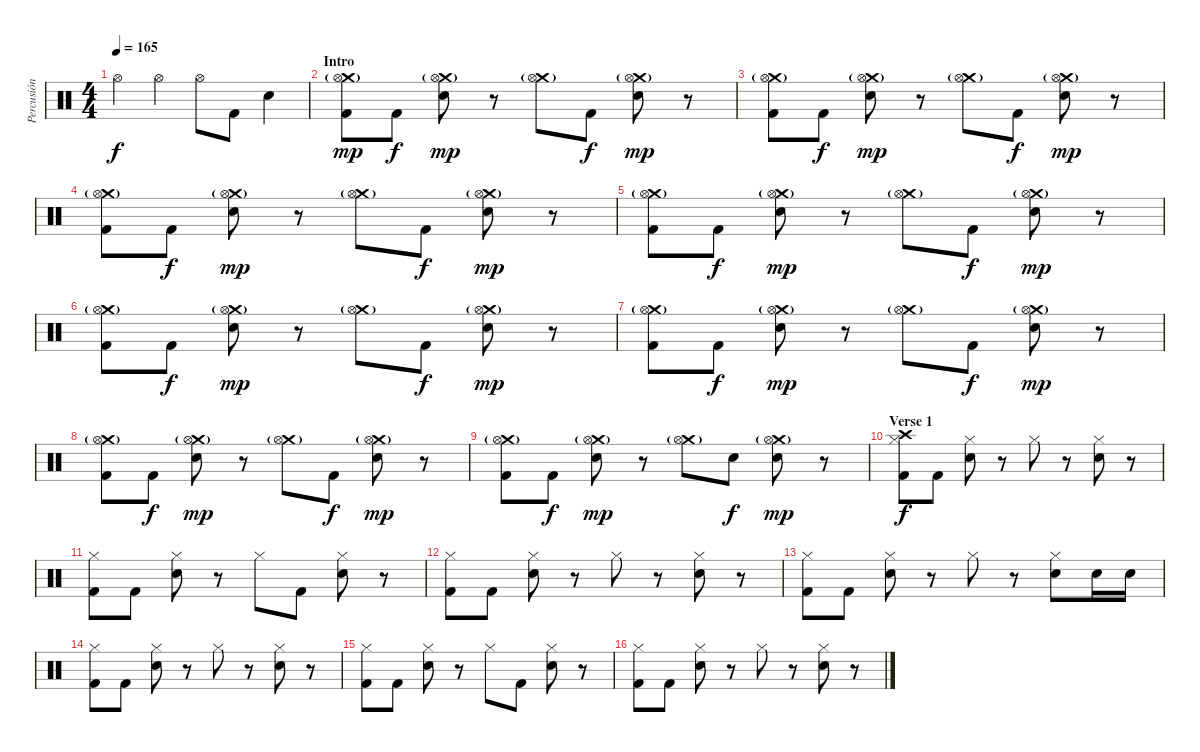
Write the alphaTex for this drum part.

\track ("Percusión" "Percusión") {instrument percussion}
\staff {score}
\articulation defaults
\ts (4 4)
\tempo 165
\clef neutral
\ks c "Hi-Hat (open)".4{dy f} "Hi-Hat (open)".4 "Hi-Hat (open)".8 "Kick (hit) 2".8 "Electric Snare (hit)".4
|
\section ("" "Intro")
("Crash medium (hit)"{g} "Hi-Hat (open)" "Kick (hit) 2").8{dy mp} "Kick (hit) 2".8{dy f} ("Crash medium (hit)"{g} "Hi-Hat (open)" "Electric Snare (hit)").8{dy mp} r.8 ("Crash medium (hit)"{g} "Hi-Hat (open)").8 "Kick (hit) 2".8{dy f} ("Crash medium (hit)"{g} "Hi-Hat (open)" "Electric Snare (hit)").8{dy mp} r.8 |
("Crash medium (hit)"{g} "Hi-Hat (open)" "Kick (hit) 2").8 "Kick (hit) 2".8{dy f} ("Crash medium (hit)"{g} "Hi-Hat (open)" "Electric Snare (hit)").8{dy mp} r.8 ("Crash medium (hit)"{g} "Hi-Hat (open)").8 "Kick (hit) 2".8{dy f} ("Crash medium (hit)"{g} "Hi-Hat (open)" "Electric Snare (hit)").8{dy mp} r.8 |
("Crash medium (hit)"{g} "Hi-Hat (open)" "Kick (hit) 2").8 "Kick (hit) 2".8{dy f} ("Crash medium (hit)"{g} "Hi-Hat (open)" "Electric Snare (hit)").8{dy mp} r.8 ("Crash medium (hit)"{g} "Hi-Hat (open)").8 "Kick (hit) 2".8{dy f} ("Crash medium (hit)"{g} "Hi-Hat (open)" "Electric Snare (hit)").8{dy mp} r.8 |
("Crash medium (hit)"{g} "Hi-Hat (open)" "Kick (hit) 2").8 "Kick (hit) 2".8{dy f} ("Crash medium (hit)"{g} "Hi-Hat (open)" "Electric Snare (hit)").8{dy mp} r.8 ("Crash medium (hit)"{g} "Hi-Hat (open)").8 "Kick (hit) 2".8{dy f} ("Crash medium (hit)"{g} "Hi-Hat (open)" "Electric Snare (hit)").8{dy mp} r.8 |
("Crash medium (hit)"{g} "Hi-Hat (open)" "Kick (hit) 2").8 "Kick (hit) 2".8{dy f} ("Crash medium (hit)"{g} "Hi-Hat (open)" "Electric Snare (hit)").8{dy mp} r.8 ("Crash medium (hit)"{g} "Hi-Hat (open)").8 "Kick (hit) 2".8{dy f} ("Crash medium (hit)"{g} "Hi-Hat (open)" "Electric Snare (hit)").8{dy mp} r.8 |
("Crash medium (hit)"{g} "Hi-Hat (open)" "Kick (hit) 2").8 "Kick (hit) 2".8{dy f} ("Crash medium (hit)"{g} "Hi-Hat (open)" "Electric Snare (hit)").8{dy mp} r.8 ("Crash medium (hit)"{g} "Hi-Hat (open)").8 "Kick (hit) 2".8{dy f} ("Crash medium (hit)"{g} "Hi-Hat (open)" "Electric Snare (hit)").8{dy mp} r.8 |
("Crash medium (hit)"{g} "Hi-Hat (open)" "Kick (hit) 2").8 "Kick (hit) 2".8{dy f} ("Crash medium (hit)"{g} "Hi-Hat (open)" "Electric Snare (hit)").8{dy mp} r.8 ("Crash medium (hit)"{g} "Hi-Hat (open)").8 "Kick (hit) 2".8{dy f} ("Crash medium (hit)"{g} "Hi-Hat (open)" "Electric Snare (hit)").8{dy mp} r.8 |
("Crash medium (hit)"{g} "Hi-Hat (open)" "Kick (hit) 2").8 "Kick (hit) 2".8{dy f} ("Crash medium (hit)"{g} "Hi-Hat (open)" "Electric Snare (hit)").8{dy mp} r.8 ("Crash medium (hit)"{g} "Hi-Hat (open)").8 "Electric Snare (hit)".8{dy f} ("Crash medium (hit)"{g} "Hi-Hat (open)" "Electric Snare (hit)").8{dy mp} r.8 |
\section ("" "Verse 1")
("Crash high (hit)" "Hi-Hat (closed)" "Kick (hit) 2").8{dy f} "Kick (hit) 2".8 ("Hi-Hat (closed)" "Electric Snare (hit)").8 r.8 "Hi-Hat (closed)".8 r.8 ("Hi-Hat (closed)" "Electric Snare (hit)").8 r.8 |
("Hi-Hat (closed)" "Kick (hit) 2").8 "Kick (hit) 2".8 ("Hi-Hat (closed)" "Electric Snare (hit)").8 r.8 "Hi-Hat (closed)".8 "Kick (hit) 2".8 ("Hi-Hat (closed)" "Electric Snare (hit)").8 r.8 |
("Hi-Hat (closed)" "Kick (hit) 2").8 "Kick (hit) 2".8 ("Hi-Hat (closed)" "Electric Snare (hit)").8 r.8 "Hi-Hat (closed)".8 r.8 ("Hi-Hat (closed)" "Electric Snare (hit)").8 r.8 |
("Hi-Hat (closed)" "Kick (hit) 2").8 "Kick (hit) 2".8 ("Hi-Hat (closed)" "Electric Snare (hit)").8 r.8 "Hi-Hat (closed)".8 r.8 ("Hi-Hat (closed)" "Electric Snare (hit)").8 "Electric Snare (hit)".16 "Electric Snare (hit)".16 |
("Hi-Hat (closed)" "Kick (hit) 2").8 "Kick (hit) 2".8 ("Hi-Hat (closed)" "Electric Snare (hit)").8 r.8 "Hi-Hat (closed)".8 r.8 ("Hi-Hat (closed)" "Electric Snare (hit)").8 r.8 |
("Hi-Hat (closed)" "Kick (hit) 2").8 "Kick (hit) 2".8 ("Hi-Hat (closed)" "Electric Snare (hit)").8 r.8 "Hi-Hat (closed)".8 "Kick (hit) 2".8 ("Hi-Hat (closed)" "Electric Snare (hit)").8 r.8 |
("Hi-Hat (closed)" "Kick (hit) 2").8 "Kick (hit) 2".8 ("Hi-Hat (closed)" "Electric Snare (hit)").8 r.8 "Hi-Hat (closed)".8 r.8 ("Hi-Hat (closed)" "Electric Snare (hit)").8 r.8
